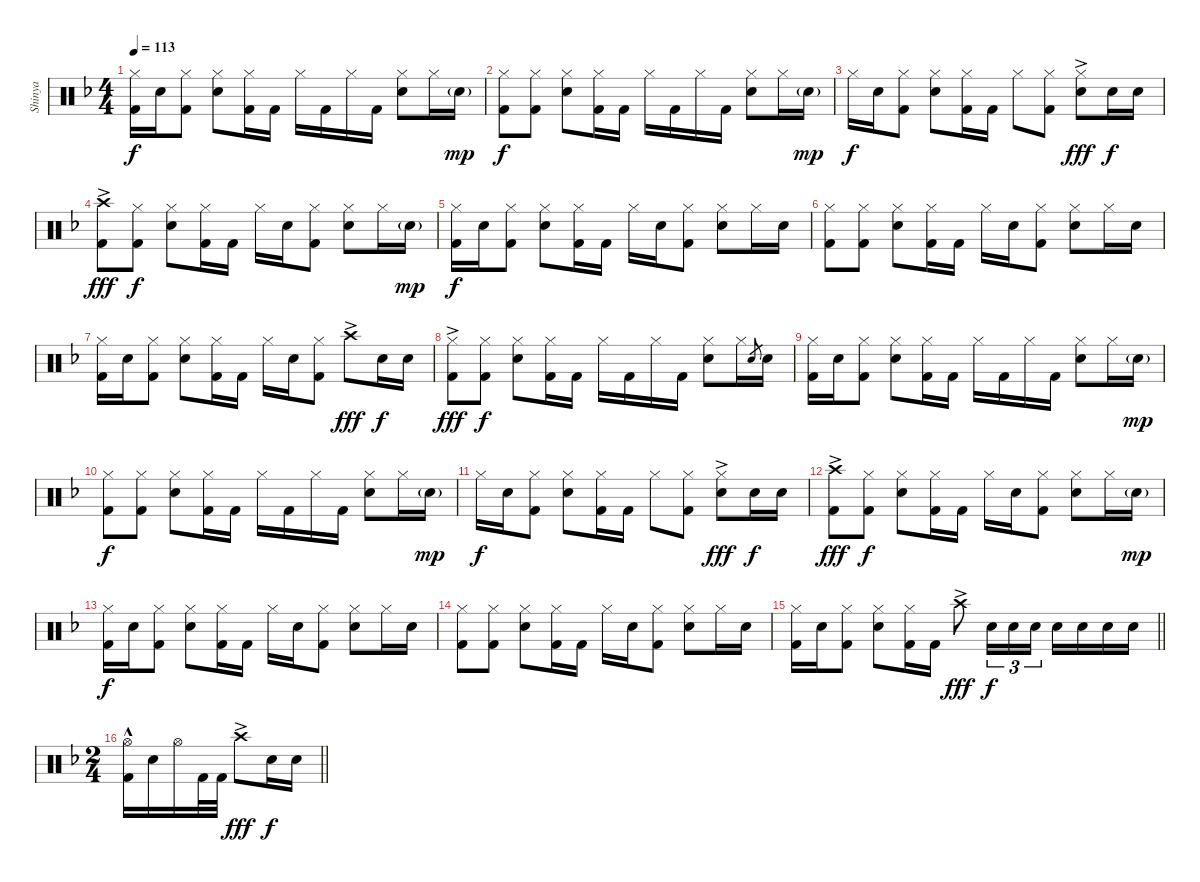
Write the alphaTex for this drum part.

\track ("Shinya" "Shinya") {instrument percussion}
\staff {score}
\articulation defaults
\ts (4 4)
\tempo 113
\clef neutral
\ks f
("Hi-Hat (closed)" "Kick (hit) 2").16{dy f} "Snare (hit) 2".16 ("Hi-Hat (closed)" "Kick (hit) 2").8 ("Hi-Hat (closed)" "Snare (hit) 2").8 ("Hi-Hat (closed)" "Kick (hit) 2").16 "Kick (hit) 2".16 "Hi-Hat (closed)".16 "Kick (hit) 2".16 "Hi-Hat (closed)".16 "Kick (hit) 2".16 ("Hi-Hat (closed)" "Snare (hit) 2").8 "Hi-Hat (closed)".16 "Snare (hit) 2"{g}.16{dy mp} |
("Hi-Hat (closed)" "Kick (hit) 2").8{dy f} ("Hi-Hat (closed)" "Kick (hit) 2").8 ("Hi-Hat (closed)" "Snare (hit) 2").8 ("Hi-Hat (closed)" "Kick (hit) 2").16 "Kick (hit) 2".16 "Hi-Hat (closed)".16 "Kick (hit) 2".16 "Hi-Hat (closed)".16 "Kick (hit) 2".16 ("Hi-Hat (closed)" "Snare (hit) 2").8 "Hi-Hat (closed)".16 "Snare (hit) 2"{g}.16{dy mp} |
"Hi-Hat (closed)".16{dy f} "Snare (hit) 2".16 ("Hi-Hat (closed)" "Kick (hit) 2").8 ("Hi-Hat (closed)" "Snare (hit) 2").8 ("Hi-Hat (closed)" "Kick (hit) 2").16 "Kick (hit) 2".16 "Hi-Hat (closed)".8 ("Hi-Hat (closed)" "Kick (hit) 2").8 ("Hi-Hat (closed)"{ac} "Snare (hit) 2").8{dy fff} "Snare (hit) 2".16{dy f} "Snare (hit) 2".16 |
("Crash high (hit)"{ac} "Kick (hit) 2").8{dy fff} ("Hi-Hat (closed)" "Kick (hit) 2").8{dy f} ("Hi-Hat (closed)" "Snare (hit) 2").8 ("Hi-Hat (closed)" "Kick (hit) 2").16 "Kick (hit) 2".16 "Hi-Hat (closed)".16 "Snare (hit) 2".16 ("Hi-Hat (closed)" "Kick (hit) 2").8 ("Hi-Hat (closed)" "Snare (hit) 2").8 "Hi-Hat (closed)".16 "Snare (hit) 2"{g}.16{dy mp} |
("Hi-Hat (closed)" "Kick (hit) 2").16{dy f} "Snare (hit) 2".16 ("Hi-Hat (closed)" "Kick (hit) 2").8 ("Hi-Hat (closed)" "Snare (hit) 2").8 ("Hi-Hat (closed)" "Kick (hit) 2").16 "Kick (hit) 2".16 "Hi-Hat (closed)".16 "Snare (hit) 2".16 ("Hi-Hat (closed)" "Kick (hit) 2").8 ("Hi-Hat (closed)" "Snare (hit) 2").8 "Hi-Hat (closed)".16 "Snare (hit) 2".16 |
("Hi-Hat (closed)" "Kick (hit) 2").8 ("Hi-Hat (closed)" "Kick (hit) 2").8 ("Hi-Hat (closed)" "Snare (hit) 2").8 ("Hi-Hat (closed)" "Kick (hit) 2").16 "Kick (hit) 2".16 "Hi-Hat (closed)".16 "Snare (hit) 2".16 ("Hi-Hat (closed)" "Kick (hit) 2").8 ("Hi-Hat (closed)" "Snare (hit) 2").8 "Hi-Hat (closed)".16 "Snare (hit) 2".16 |
("Hi-Hat (closed)" "Kick (hit) 2").16 "Snare (hit) 2".16 ("Hi-Hat (closed)" "Kick (hit) 2").8 ("Hi-Hat (closed)" "Snare (hit) 2").8 ("Hi-Hat (closed)" "Kick (hit) 2").16 "Kick (hit) 2".16 "Hi-Hat (closed)".16 "Snare (hit) 2".16 ("Hi-Hat (closed)" "Kick (hit) 2").8 "Crash high (hit)"{ac}.8{dy fff} "Snare (hit) 2".16{dy f} "Snare (hit) 2".16 |
("Hi-Hat (closed)"{ac} "Kick (hit) 2").8{dy fff} ("Hi-Hat (closed)" "Kick (hit) 2").8{dy f} ("Hi-Hat (closed)" "Snare (hit) 2").8 ("Hi-Hat (closed)" "Kick (hit) 2").16 "Kick (hit) 2".16 "Hi-Hat (closed)".16 "Kick (hit) 2".16 "Hi-Hat (closed)".16 "Kick (hit) 2".16 ("Hi-Hat (closed)" "Snare (hit) 2").8 "Hi-Hat (closed)".16 "Snare (hit) 2".8{gr} "Snare (hit) 2".16 |
("Hi-Hat (closed)" "Kick (hit) 2").16 "Snare (hit) 2".16 ("Hi-Hat (closed)" "Kick (hit) 2").8 ("Hi-Hat (closed)" "Snare (hit) 2").8 ("Hi-Hat (closed)" "Kick (hit) 2").16 "Kick (hit) 2".16 "Hi-Hat (closed)".16 "Kick (hit) 2".16 "Hi-Hat (closed)".16 "Kick (hit) 2".16 ("Hi-Hat (closed)" "Snare (hit) 2").8 "Hi-Hat (closed)".16 "Snare (hit) 2"{g}.16{dy mp} |
("Hi-Hat (closed)" "Kick (hit) 2").8{dy f} ("Hi-Hat (closed)" "Kick (hit) 2").8 ("Hi-Hat (closed)" "Snare (hit) 2").8 ("Hi-Hat (closed)" "Kick (hit) 2").16 "Kick (hit) 2".16 "Hi-Hat (closed)".16 "Kick (hit) 2".16 "Hi-Hat (closed)".16 "Kick (hit) 2".16 ("Hi-Hat (closed)" "Snare (hit) 2").8 "Hi-Hat (closed)".16 "Snare (hit) 2"{g}.16{dy mp} |
"Hi-Hat (closed)".16{dy f} "Snare (hit) 2".16 ("Hi-Hat (closed)" "Kick (hit) 2").8 ("Hi-Hat (closed)" "Snare (hit) 2").8 ("Hi-Hat (closed)" "Kick (hit) 2").16 "Kick (hit) 2".16 "Hi-Hat (closed)".8 ("Hi-Hat (closed)" "Kick (hit) 2").8 ("Hi-Hat (closed)"{ac} "Snare (hit) 2").8{dy fff} "Snare (hit) 2".16{dy f} "Snare (hit) 2".16 |
("Crash high (hit)"{ac} "Kick (hit) 2").8{dy fff} ("Hi-Hat (closed)" "Kick (hit) 2").8{dy f} ("Hi-Hat (closed)" "Snare (hit) 2").8 ("Hi-Hat (closed)" "Kick (hit) 2").16 "Kick (hit) 2".16 "Hi-Hat (closed)".16 "Snare (hit) 2".16 ("Hi-Hat (closed)" "Kick (hit) 2").8 ("Hi-Hat (closed)" "Snare (hit) 2").8 "Hi-Hat (closed)".16 "Snare (hit) 2"{g}.16{dy mp} |
("Hi-Hat (closed)" "Kick (hit) 2").16{dy f} "Snare (hit) 2".16 ("Hi-Hat (closed)" "Kick (hit) 2").8 ("Hi-Hat (closed)" "Snare (hit) 2").8 ("Hi-Hat (closed)" "Kick (hit) 2").16 "Kick (hit) 2".16 "Hi-Hat (closed)".16 "Snare (hit) 2".16 ("Hi-Hat (closed)" "Kick (hit) 2").8 ("Hi-Hat (closed)" "Snare (hit) 2").8 "Hi-Hat (closed)".16 "Snare (hit) 2".16 |
("Hi-Hat (closed)" "Kick (hit) 2").8 ("Hi-Hat (closed)" "Kick (hit) 2").8 ("Hi-Hat (closed)" "Snare (hit) 2").8 ("Hi-Hat (closed)" "Kick (hit) 2").16 "Kick (hit) 2".16 "Hi-Hat (closed)".16 "Snare (hit) 2".16 ("Hi-Hat (closed)" "Kick (hit) 2").8 ("Hi-Hat (closed)" "Snare (hit) 2").8 "Hi-Hat (closed)".16 "Snare (hit) 2".16 |
\barLineRight lightlight
("Hi-Hat (closed)" "Kick (hit) 2").16 "Snare (hit) 2".16 ("Hi-Hat (closed)" "Kick (hit) 2").8 ("Hi-Hat (closed)" "Snare (hit) 2").8 ("Hi-Hat (closed)" "Kick (hit) 2").16 "Kick (hit) 2".16 "Crash high (hit)"{ac}.8{dy fff} "Snare (hit) 2".16{tu (3 2) dy f} "Snare (hit) 2".16{tu (3 2)} "Snare (hit) 2".16{tu (3 2)} "Snare (hit) 2".16 "Snare (hit) 2".16 "Snare (hit) 2".16 "Snare (hit) 2".16 |
\ts (2 4)
\barLineRight lightlight
("Hi-Hat (open)" "Kick (hit) 2"{hac}).16 "Snare (hit) 2".16 "Hi-Hat (open)".16 "Kick (hit) 2".32 "Kick (hit) 2".32 "Crash high (hit)"{ac}.8{dy fff} "Snare (hit) 2".16{dy f} "Snare (hit) 2".16
